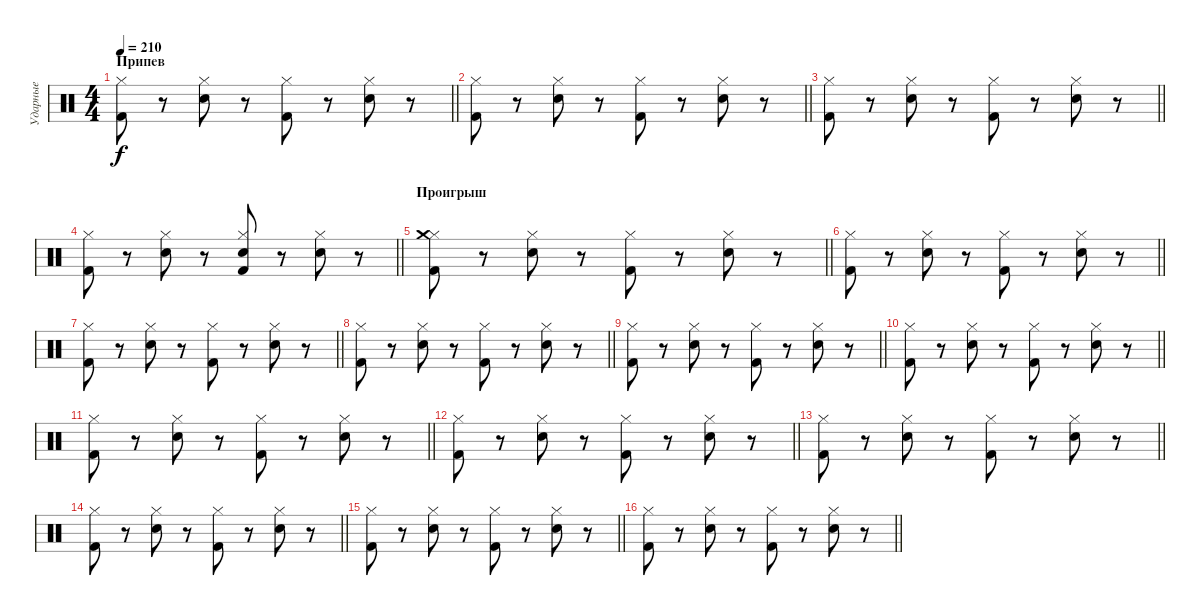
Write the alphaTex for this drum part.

\track ("Ударные" "Ударные") {instrument percussion}
\staff {score}
\articulation defaults
\ts (4 4)
\section ("" "Припев")
\tempo 210
\clef neutral
\barLineRight lightlight
\ks c
("Kick (hit) 2" "Hi-Hat (closed)").8{dy f} r.8 ("Snare (hit) 2" "Hi-Hat (closed)").8 r.8 ("Kick (hit) 2" "Hi-Hat (closed)").8 r.8 ("Snare (hit) 2" "Hi-Hat (closed)").8 r.8 |
\barLineRight lightlight
("Kick (hit) 2" "Hi-Hat (closed)").8 r.8 ("Snare (hit) 2" "Hi-Hat (closed)").8 r.8 ("Kick (hit) 2" "Hi-Hat (closed)").8 r.8 ("Snare (hit) 2" "Hi-Hat (closed)").8 r.8 |
\barLineRight lightlight
("Kick (hit) 2" "Hi-Hat (closed)").8 r.8 ("Snare (hit) 2" "Hi-Hat (closed)").8 r.8 ("Kick (hit) 2" "Hi-Hat (closed)").8 r.8 ("Snare (hit) 2" "Hi-Hat (closed)").8 r.8 |
\barLineRight lightlight
("Kick (hit) 2" "Hi-Hat (closed)").8 r.8 ("Snare (hit) 2" "Hi-Hat (closed)").8 r.8 ("Kick (hit) 2" "Snare (hit) 2" "Hi-Hat (closed)").8 r.8 ("Snare (hit) 2" "Hi-Hat (closed)").8 r.8 |
\section ("" "Проигрыш")
\barLineRight lightlight
("Kick (hit) 2" "Hi-Hat (closed)" "Crash medium (hit)").8 r.8 ("Snare (hit) 2" "Hi-Hat (closed)").8 r.8 ("Kick (hit) 2" "Hi-Hat (closed)").8 r.8 ("Snare (hit) 2" "Hi-Hat (closed)").8 r.8 |
\barLineRight lightlight
("Kick (hit) 2" "Hi-Hat (closed)").8 r.8 ("Snare (hit) 2" "Hi-Hat (closed)").8 r.8 ("Kick (hit) 2" "Hi-Hat (closed)").8 r.8 ("Snare (hit) 2" "Hi-Hat (closed)").8 r.8 |
\barLineRight lightlight
("Kick (hit) 2" "Hi-Hat (closed)").8 r.8 ("Snare (hit) 2" "Hi-Hat (closed)").8 r.8 ("Kick (hit) 2" "Hi-Hat (closed)").8 r.8 ("Snare (hit) 2" "Hi-Hat (closed)").8 r.8 |
\barLineRight lightlight
("Kick (hit) 2" "Hi-Hat (closed)").8 r.8 ("Snare (hit) 2" "Hi-Hat (closed)").8 r.8 ("Kick (hit) 2" "Hi-Hat (closed)").8 r.8 ("Snare (hit) 2" "Hi-Hat (closed)").8 r.8 |
\barLineRight lightlight
("Kick (hit) 2" "Hi-Hat (closed)").8 r.8 ("Snare (hit) 2" "Hi-Hat (closed)").8 r.8 ("Kick (hit) 2" "Hi-Hat (closed)").8 r.8 ("Snare (hit) 2" "Hi-Hat (closed)").8 r.8 |
\barLineRight lightlight
("Kick (hit) 2" "Hi-Hat (closed)").8 r.8 ("Snare (hit) 2" "Hi-Hat (closed)").8 r.8 ("Kick (hit) 2" "Hi-Hat (closed)").8 r.8 ("Snare (hit) 2" "Hi-Hat (closed)").8 r.8 |
\barLineRight lightlight
("Kick (hit) 2" "Hi-Hat (closed)").8 r.8 ("Snare (hit) 2" "Hi-Hat (closed)").8 r.8 ("Kick (hit) 2" "Hi-Hat (closed)").8 r.8 ("Snare (hit) 2" "Hi-Hat (closed)").8 r.8 |
\barLineRight lightlight
("Kick (hit) 2" "Hi-Hat (closed)").8 r.8 ("Snare (hit) 2" "Hi-Hat (closed)").8 r.8 ("Kick (hit) 2" "Hi-Hat (closed)").8 r.8 ("Snare (hit) 2" "Hi-Hat (closed)").8 r.8 |
\barLineRight lightlight
("Kick (hit) 2" "Hi-Hat (closed)").8 r.8 ("Snare (hit) 2" "Hi-Hat (closed)").8 r.8 ("Kick (hit) 2" "Hi-Hat (closed)").8 r.8 ("Snare (hit) 2" "Hi-Hat (closed)").8 r.8 |
\barLineRight lightlight
("Kick (hit) 2" "Hi-Hat (closed)").8 r.8 ("Snare (hit) 2" "Hi-Hat (closed)").8 r.8 ("Kick (hit) 2" "Hi-Hat (closed)").8 r.8 ("Snare (hit) 2" "Hi-Hat (closed)").8 r.8 |
\barLineRight lightlight
("Kick (hit) 2" "Hi-Hat (closed)").8 r.8 ("Snare (hit) 2" "Hi-Hat (closed)").8 r.8 ("Kick (hit) 2" "Hi-Hat (closed)").8 r.8 ("Snare (hit) 2" "Hi-Hat (closed)").8 r.8 |
\barLineRight lightlight
("Kick (hit) 2" "Hi-Hat (closed)").8 r.8 ("Snare (hit) 2" "Hi-Hat (closed)").8 r.8 ("Kick (hit) 2" "Hi-Hat (closed)").8 r.8 ("Snare (hit) 2" "Hi-Hat (closed)").8 r.8
